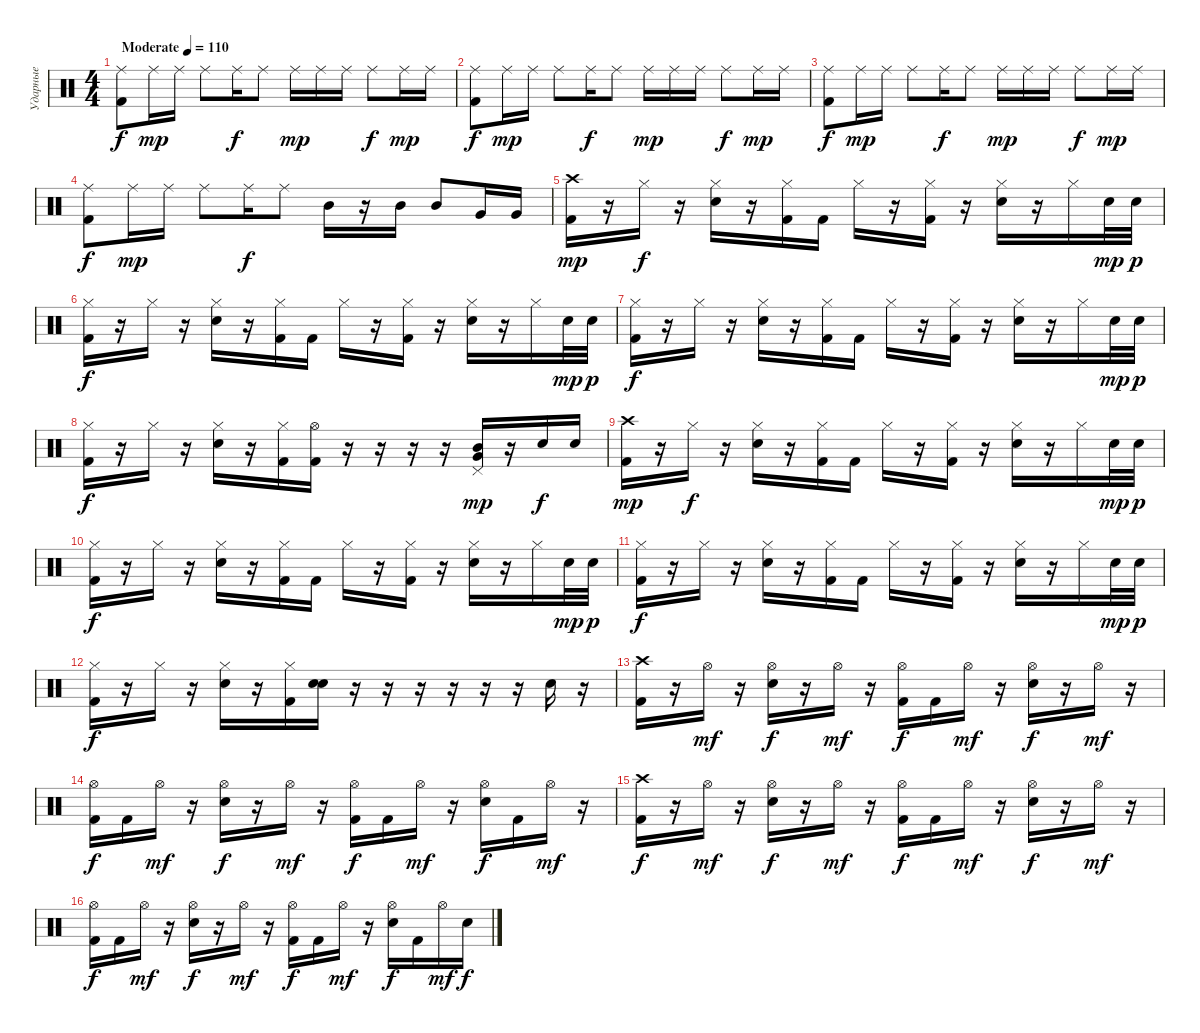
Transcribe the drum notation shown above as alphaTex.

\track ("Ударные" "Ударные") {instrument percussion}
\staff {score}
\articulation defaults
\ts (4 4)
\tempo (110 "Moderate")
\clef neutral
\ks c
("Ride (middle)" "Kick (hit) 2").8{dy f} "Ride (middle)".16{dy mp} "Ride (middle)".16 "Ride (middle)".8 "Ride (middle)".16{dy f} "Ride (middle)".8 "Ride (middle)".16{dy mp} "Ride (middle)".16 "Ride (middle)".16 "Ride (middle)".8{dy f} "Ride (middle)".16{dy mp} "Ride (middle)".16 |
("Ride (middle)" "Kick (hit) 2").8{dy f} "Ride (middle)".16{dy mp} "Ride (middle)".16 "Ride (middle)".8 "Ride (middle)".16{dy f} "Ride (middle)".8 "Ride (middle)".16{dy mp} "Ride (middle)".16 "Ride (middle)".16 "Ride (middle)".8{dy f} "Ride (middle)".16{dy mp} "Ride (middle)".16 |
("Ride (middle)" "Kick (hit) 2").8{dy f} "Ride (middle)".16{dy mp} "Ride (middle)".16 "Ride (middle)".8 "Ride (middle)".16{dy f} "Ride (middle)".8 "Ride (middle)".16{dy mp} "Ride (middle)".16 "Ride (middle)".16 "Ride (middle)".8{dy f} "Ride (middle)".16{dy mp} "Ride (middle)".16 |
("Ride (middle)" "Kick (hit) 2").8{dy f} "Ride (middle)".16{dy mp} "Ride (middle)".16 "Ride (middle)".8 "Ride (middle)".16{dy f} "Ride (middle)".8 "Mid Tom (hit)".16 r.16 "Mid Tom (hit)".16 "Mid Tom (hit)".8 "Very Low Tom (hit)".16 "Very Low Tom (hit)".16 |
("Crash high (hit)" "Kick (hit) 2").16{dy mp} r.16 "Hi-Hat (closed)".16{dy f} r.16 ("Hi-Hat (closed)" "Electric Snare (hit)").16 r.16 ("Hi-Hat (closed)" "Kick (hit) 2").16 "Kick (hit) 2".16 "Hi-Hat (closed)".16 r.16 ("Hi-Hat (closed)" "Kick (hit) 2").16 r.16 ("Hi-Hat (closed)" "Electric Snare (hit)").16 r.16 "Hi-Hat (closed)".16 "Electric Snare (hit)".32{dy mp} "Electric Snare (hit)".32{dy p} |
("Hi-Hat (closed)" "Kick (hit) 2").16{dy f} r.16 "Hi-Hat (closed)".16 r.16 ("Hi-Hat (closed)" "Electric Snare (hit)").16 r.16 ("Hi-Hat (closed)" "Kick (hit) 2").16 "Kick (hit) 2".16 "Hi-Hat (closed)".16 r.16 ("Hi-Hat (closed)" "Kick (hit) 2").16 r.16 ("Hi-Hat (closed)" "Electric Snare (hit)").16 r.16 "Hi-Hat (closed)".16 "Electric Snare (hit)".32{dy mp} "Electric Snare (hit)".32{dy p} |
("Hi-Hat (closed)" "Kick (hit) 2").16{dy f} r.16 "Hi-Hat (closed)".16 r.16 ("Hi-Hat (closed)" "Electric Snare (hit)").16 r.16 ("Hi-Hat (closed)" "Kick (hit) 2").16 "Kick (hit) 2".16 "Hi-Hat (closed)".16 r.16 ("Hi-Hat (closed)" "Kick (hit) 2").16 r.16 ("Hi-Hat (closed)" "Electric Snare (hit)").16 r.16 "Hi-Hat (closed)".16 "Electric Snare (hit)".32{dy mp} "Electric Snare (hit)".32{dy p} |
("Hi-Hat (closed)" "Kick (hit) 2").16{dy f} r.16 "Hi-Hat (closed)".16 r.16 ("Hi-Hat (closed)" "Electric Snare (hit)").16 r.16 ("Hi-Hat (closed)" "Kick (hit) 2").16 ("Hi-Hat (open)" "Kick (hit) 2").16 r.16 r.16 r.16 r.16 ("Very Low Tom (hit)" "Mid Tom (hit)" "Pedal Hi-Hat (hit)").16{dy mp} r.16 "Electric Snare (hit)".16{dy f} "Electric Snare (hit)".16 |
("Crash high (hit)" "Kick (hit) 2").16{dy mp} r.16 "Hi-Hat (closed)".16{dy f} r.16 ("Hi-Hat (closed)" "Electric Snare (hit)").16 r.16 ("Hi-Hat (closed)" "Kick (hit) 2").16 "Kick (hit) 2".16 "Hi-Hat (closed)".16 r.16 ("Hi-Hat (closed)" "Kick (hit) 2").16 r.16 ("Hi-Hat (closed)" "Electric Snare (hit)").16 r.16 "Hi-Hat (closed)".16 "Electric Snare (hit)".32{dy mp} "Electric Snare (hit)".32{dy p} |
("Hi-Hat (closed)" "Kick (hit) 2").16{dy f} r.16 "Hi-Hat (closed)".16 r.16 ("Hi-Hat (closed)" "Electric Snare (hit)").16 r.16 ("Hi-Hat (closed)" "Kick (hit) 2").16 "Kick (hit) 2".16 "Hi-Hat (closed)".16 r.16 ("Hi-Hat (closed)" "Kick (hit) 2").16 r.16 ("Hi-Hat (closed)" "Electric Snare (hit)").16 r.16 "Hi-Hat (closed)".16 "Electric Snare (hit)".32{dy mp} "Electric Snare (hit)".32{dy p} |
("Hi-Hat (closed)" "Kick (hit) 2").16{dy f} r.16 "Hi-Hat (closed)".16 r.16 ("Hi-Hat (closed)" "Electric Snare (hit)").16 r.16 ("Hi-Hat (closed)" "Kick (hit) 2").16 "Kick (hit) 2".16 "Hi-Hat (closed)".16 r.16 ("Hi-Hat (closed)" "Kick (hit) 2").16 r.16 ("Hi-Hat (closed)" "Electric Snare (hit)").16 r.16 "Hi-Hat (closed)".16 "Electric Snare (hit)".32{dy mp} "Electric Snare (hit)".32{dy p} |
("Hi-Hat (closed)" "Kick (hit) 2").16{dy f} r.16 "Hi-Hat (closed)".16 r.16 ("Hi-Hat (closed)" "Electric Snare (hit)").16 r.16 ("Hi-Hat (closed)" "Kick (hit) 2").16 ("Electric Snare (hit)" "Electric Snare (hit)").16 r.16 r.16 r.16 r.16 r.16 r.16 "Electric Snare (hit)".16 r.16 |
("Crash high (hit)" "Kick (hit) 2").16 r.16 "Hi-Hat (open)".16{dy mf} r.16 ("Hi-Hat (open)" "Electric Snare (hit)").16{dy f} r.16 "Hi-Hat (open)".16{dy mf} r.16 ("Hi-Hat (open)" "Kick (hit) 2").16{dy f} "Kick (hit) 2".16 "Hi-Hat (open)".16{dy mf} r.16 ("Hi-Hat (open)" "Electric Snare (hit)").16{dy f} r.16 "Hi-Hat (open)".16{dy mf} r.16 |
("Hi-Hat (open)" "Kick (hit) 2").16{dy f} "Kick (hit) 2".16 "Hi-Hat (open)".16{dy mf} r.16 ("Hi-Hat (open)" "Electric Snare (hit)").16{dy f} r.16 "Hi-Hat (open)".16{dy mf} r.16 ("Hi-Hat (open)" "Kick (hit) 2").16{dy f} "Kick (hit) 2".16 "Hi-Hat (open)".16{dy mf} r.16 ("Hi-Hat (open)" "Electric Snare (hit)").16{dy f} "Kick (hit) 2".16 "Hi-Hat (open)".16{dy mf} r.16 |
("Crash high (hit)" "Kick (hit) 2").16{dy f} r.16 "Hi-Hat (open)".16{dy mf} r.16 ("Hi-Hat (open)" "Electric Snare (hit)").16{dy f} r.16 "Hi-Hat (open)".16{dy mf} r.16 ("Hi-Hat (open)" "Kick (hit) 2").16{dy f} "Kick (hit) 2".16 "Hi-Hat (open)".16{dy mf} r.16 ("Hi-Hat (open)" "Electric Snare (hit)").16{dy f} r.16 "Hi-Hat (open)".16{dy mf} r.16 |
("Hi-Hat (open)" "Kick (hit) 2").16{dy f} "Kick (hit) 2".16 "Hi-Hat (open)".16{dy mf} r.16 ("Hi-Hat (open)" "Electric Snare (hit)").16{dy f} r.16 "Hi-Hat (open)".16{dy mf} r.16 ("Hi-Hat (open)" "Kick (hit) 2").16{dy f} "Kick (hit) 2".16 "Hi-Hat (open)".16{dy mf} r.16 ("Hi-Hat (open)" "Electric Snare (hit)").16{dy f} "Kick (hit) 2".16 "Hi-Hat (open)".16{dy mf} "Electric Snare (hit)".16{dy f}
